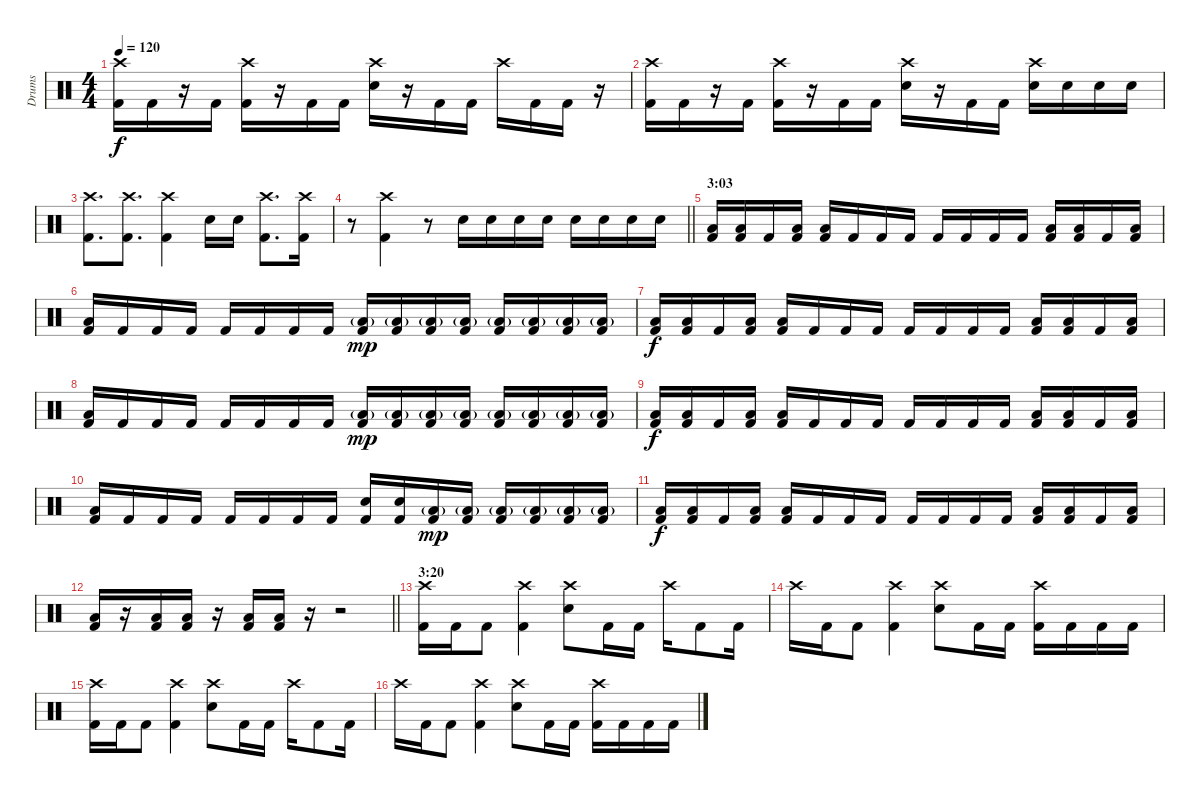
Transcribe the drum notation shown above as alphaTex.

\track ("Drums" "Drums") {instrument percussion}
\staff {score}
\articulation defaults
\ts (4 4)
\tempo 120
\clef neutral
\ks c
("Crash high (hit)" "Kick (hit) 2").16{dy f} "Kick (hit) 2".16 r.16 "Kick (hit) 2".16 ("Crash high (hit)" "Kick (hit) 2").16 r.16 "Kick (hit) 2".16 "Kick (hit) 2".16 ("Crash high (hit)" "Electric Snare (hit)").16 r.16 "Kick (hit) 2".16 "Kick (hit) 2".16 "Crash high (hit)".16 "Kick (hit) 2".16 "Kick (hit) 2".16 r.16 |
("Crash high (hit)" "Kick (hit) 2").16 "Kick (hit) 2".16 r.16 "Kick (hit) 2".16 ("Crash high (hit)" "Kick (hit) 2").16 r.16 "Kick (hit) 2".16 "Kick (hit) 2".16 ("Crash high (hit)" "Electric Snare (hit)").16 r.16 "Kick (hit) 2".16 "Kick (hit) 2".16 ("Crash high (hit)" "Electric Snare (hit)").16 "Electric Snare (hit)".16 "Electric Snare (hit)".16 "Electric Snare (hit)".16 |
("Crash high (hit)" "Kick (hit) 2").8{d} ("Crash high (hit)" "Kick (hit) 2").8{d} ("Crash high (hit)" "Kick (hit) 2").4 "Electric Snare (hit)".16 "Electric Snare (hit)".16 ("Crash high (hit)" "Kick (hit) 2").8{d} ("Crash high (hit)" "Kick (hit) 2").16 |
\barLineRight lightlight
r.8 ("Crash high (hit)" "Kick (hit) 2").4 r.8 "Electric Snare (hit)".16 "Electric Snare (hit)".16 "Electric Snare (hit)".16 "Electric Snare (hit)".16 "Electric Snare (hit)".16 "Electric Snare (hit)".16 "Electric Snare (hit)".16 "Electric Snare (hit)".16 |
\section ("" "3:03")
("Low Floor Tom (hit)" "Kick (hit) 2").16 ("Low Floor Tom (hit)" "Kick (hit) 2").16 "Kick (hit) 2".16 ("Low Floor Tom (hit)" "Kick (hit) 2").16 ("Low Floor Tom (hit)" "Kick (hit) 2").16 "Kick (hit) 2".16 "Kick (hit) 2".16 "Kick (hit) 2".16 "Kick (hit) 2".16 "Kick (hit) 2".16 "Kick (hit) 2".16 "Kick (hit) 2".16 ("Low Floor Tom (hit)" "Kick (hit) 2").16 ("Low Floor Tom (hit)" "Kick (hit) 2").16 "Kick (hit) 2".16 ("Low Floor Tom (hit)" "Kick (hit) 2").16 |
("Low Floor Tom (hit)" "Kick (hit) 2").16 "Kick (hit) 2".16 "Kick (hit) 2".16 "Kick (hit) 2".16 "Kick (hit) 2".16 "Kick (hit) 2".16 "Kick (hit) 2".16 "Kick (hit) 2".16 ("Low Floor Tom (hit)"{g} "Kick (hit) 2").16{dy mp} ("Low Floor Tom (hit)"{g} "Kick (hit) 2").16 ("Low Floor Tom (hit)"{g} "Kick (hit) 2").16 ("Low Floor Tom (hit)"{g} "Kick (hit) 2").16 ("Low Floor Tom (hit)"{g} "Kick (hit) 2").16 ("Low Floor Tom (hit)"{g} "Kick (hit) 2").16 ("Low Floor Tom (hit)"{g} "Kick (hit) 2").16 ("Low Floor Tom (hit)"{g} "Kick (hit) 2").16 |
("Low Floor Tom (hit)" "Kick (hit) 2").16{dy f} ("Low Floor Tom (hit)" "Kick (hit) 2").16 "Kick (hit) 2".16 ("Low Floor Tom (hit)" "Kick (hit) 2").16 ("Low Floor Tom (hit)" "Kick (hit) 2").16 "Kick (hit) 2".16 "Kick (hit) 2".16 "Kick (hit) 2".16 "Kick (hit) 2".16 "Kick (hit) 2".16 "Kick (hit) 2".16 "Kick (hit) 2".16 ("Low Floor Tom (hit)" "Kick (hit) 2").16 ("Low Floor Tom (hit)" "Kick (hit) 2").16 "Kick (hit) 2".16 ("Low Floor Tom (hit)" "Kick (hit) 2").16 |
("Low Floor Tom (hit)" "Kick (hit) 2").16 "Kick (hit) 2".16 "Kick (hit) 2".16 "Kick (hit) 2".16 "Kick (hit) 2".16 "Kick (hit) 2".16 "Kick (hit) 2".16 "Kick (hit) 2".16 ("Low Floor Tom (hit)"{g} "Kick (hit) 2").16{dy mp} ("Low Floor Tom (hit)"{g} "Kick (hit) 2").16 ("Low Floor Tom (hit)"{g} "Kick (hit) 2").16 ("Low Floor Tom (hit)"{g} "Kick (hit) 2").16 ("Low Floor Tom (hit)"{g} "Kick (hit) 2").16 ("Low Floor Tom (hit)"{g} "Kick (hit) 2").16 ("Low Floor Tom (hit)"{g} "Kick (hit) 2").16 ("Low Floor Tom (hit)"{g} "Kick (hit) 2").16 |
("Low Floor Tom (hit)" "Kick (hit) 2").16{dy f} ("Low Floor Tom (hit)" "Kick (hit) 2").16 "Kick (hit) 2".16 ("Low Floor Tom (hit)" "Kick (hit) 2").16 ("Low Floor Tom (hit)" "Kick (hit) 2").16 "Kick (hit) 2".16 "Kick (hit) 2".16 "Kick (hit) 2".16 "Kick (hit) 2".16 "Kick (hit) 2".16 "Kick (hit) 2".16 "Kick (hit) 2".16 ("Low Floor Tom (hit)" "Kick (hit) 2").16 ("Low Floor Tom (hit)" "Kick (hit) 2").16 "Kick (hit) 2".16 ("Low Floor Tom (hit)" "Kick (hit) 2").16 |
("Low Floor Tom (hit)" "Kick (hit) 2").16 "Kick (hit) 2".16 "Kick (hit) 2".16 "Kick (hit) 2".16 "Kick (hit) 2".16 "Kick (hit) 2".16 "Kick (hit) 2".16 "Kick (hit) 2".16 ("Electric Snare (hit)" "Kick (hit) 2").16 ("Electric Snare (hit)" "Kick (hit) 2").16 ("Low Floor Tom (hit)"{g} "Kick (hit) 2").16{dy mp} ("Low Floor Tom (hit)"{g} "Kick (hit) 2").16 ("Low Floor Tom (hit)"{g} "Kick (hit) 2").16 ("Low Floor Tom (hit)"{g} "Kick (hit) 2").16 ("Low Floor Tom (hit)"{g} "Kick (hit) 2").16 ("Low Floor Tom (hit)"{g} "Kick (hit) 2").16 |
("Low Floor Tom (hit)" "Kick (hit) 2").16{dy f} ("Low Floor Tom (hit)" "Kick (hit) 2").16 "Kick (hit) 2".16 ("Low Floor Tom (hit)" "Kick (hit) 2").16 ("Low Floor Tom (hit)" "Kick (hit) 2").16 "Kick (hit) 2".16 "Kick (hit) 2".16 "Kick (hit) 2".16 "Kick (hit) 2".16 "Kick (hit) 2".16 "Kick (hit) 2".16 "Kick (hit) 2".16 ("Low Floor Tom (hit)" "Kick (hit) 2").16 ("Low Floor Tom (hit)" "Kick (hit) 2").16 "Kick (hit) 2".16 ("Low Floor Tom (hit)" "Kick (hit) 2").16 |
\barLineRight lightlight
("Low Floor Tom (hit)" "Kick (hit) 2").16 r.16 ("Low Floor Tom (hit)" "Kick (hit) 2").16 ("Low Floor Tom (hit)" "Kick (hit) 2").16 r.16 ("Low Floor Tom (hit)" "Kick (hit) 2").16 ("Low Floor Tom (hit)" "Kick (hit) 2").16 r.16 r.2 |
\section ("" "3:20")
("Crash high (hit)" "Kick (hit) 2").16 "Kick (hit) 2".16 "Kick (hit) 2".8 ("Crash high (hit)" "Kick (hit) 2").4 ("Crash high (hit)" "Electric Snare (hit)").8 "Kick (hit) 2".16 "Kick (hit) 2".16 "Crash high (hit)".16 "Kick (hit) 2".8 "Kick (hit) 2".16 |
"Crash high (hit)".16 "Kick (hit) 2".16 "Kick (hit) 2".8 ("Crash high (hit)" "Kick (hit) 2").4 ("Crash high (hit)" "Electric Snare (hit)").8 "Kick (hit) 2".16 "Kick (hit) 2".16 ("Crash high (hit)" "Kick (hit) 2").16 "Kick (hit) 2".16 "Kick (hit) 2".16 "Kick (hit) 2".16 |
("Crash high (hit)" "Kick (hit) 2").16 "Kick (hit) 2".16 "Kick (hit) 2".8 ("Crash high (hit)" "Kick (hit) 2").4 ("Crash high (hit)" "Electric Snare (hit)").8 "Kick (hit) 2".16 "Kick (hit) 2".16 "Crash high (hit)".16 "Kick (hit) 2".8 "Kick (hit) 2".16 |
"Crash high (hit)".16 "Kick (hit) 2".16 "Kick (hit) 2".8 ("Crash high (hit)" "Kick (hit) 2").4 ("Crash high (hit)" "Electric Snare (hit)").8 "Kick (hit) 2".16 "Kick (hit) 2".16 ("Crash high (hit)" "Kick (hit) 2").16 "Kick (hit) 2".16 "Kick (hit) 2".16 "Kick (hit) 2".16
